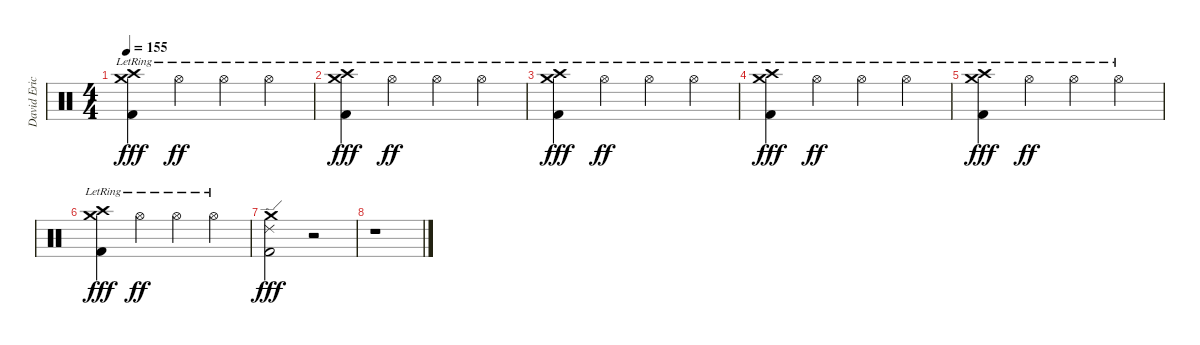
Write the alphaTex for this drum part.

\track ("David Eric Grohl" "David Eric") {instrument percussion}
\staff {score}
\articulation defaults
\ts (4 4)
\tempo 155
\clef neutral
\ks c
("Crash medium (hit)"{lr} "Crash high (hit)"{lr} "Kick (hit) 2").4{dy fff} "Hi-Hat (open)"{lr}.4{dy ff} "Hi-Hat (open)"{lr}.4 "Hi-Hat (open)"{lr}.4 |
("Crash medium (hit)"{lr} "Crash high (hit)"{lr} "Kick (hit) 2").4{dy fff} "Hi-Hat (open)"{lr}.4{dy ff} "Hi-Hat (open)"{lr}.4 "Hi-Hat (open)"{lr}.4 |
("Crash medium (hit)"{lr} "Crash high (hit)"{lr} "Kick (hit) 2").4{dy fff} "Hi-Hat (open)"{lr}.4{dy ff} "Hi-Hat (open)"{lr}.4 "Hi-Hat (open)"{lr}.4 |
("Crash medium (hit)"{lr} "Crash high (hit)"{lr} "Kick (hit) 2").4{dy fff} "Hi-Hat (open)"{lr}.4{dy ff} "Hi-Hat (open)"{lr}.4 "Hi-Hat (open)"{lr}.4 |
("Crash medium (hit)"{lr} "Crash high (hit)"{lr} "Kick (hit) 2").4{dy fff} "Hi-Hat (open)"{lr}.4{dy ff} "Hi-Hat (open)"{lr}.4 "Hi-Hat (open)"{lr}.4 |
("Crash medium (hit)"{lr} "Crash high (hit)"{lr} "Kick (hit) 2").4{dy fff} "Hi-Hat (open)"{lr}.4{dy ff} "Hi-Hat (open)"{lr}.4 "Hi-Hat (open)"{lr}.4 |
("Ride (edge) 2" "Crash medium (hit)" "Kick (hit) 2").2{dy fff} r.2 |
r.1
